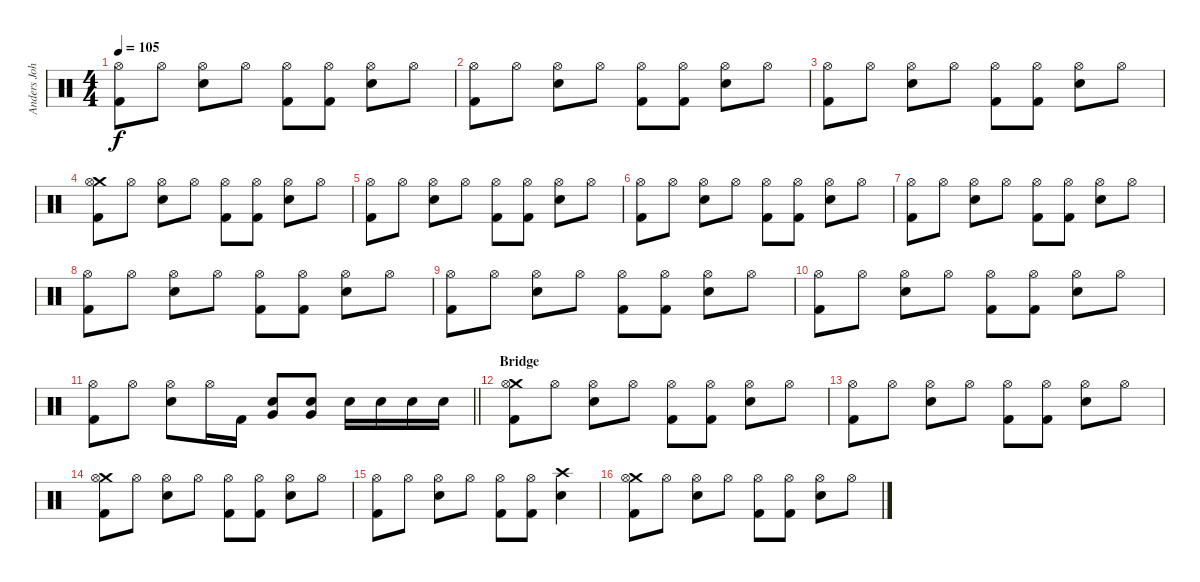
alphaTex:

\track ("Anders Johansson" "Anders Joh") {instrument percussion}
\staff {score}
\articulation defaults
\ts (4 4)
\tempo 105
\clef neutral
\ks c
("Hi-Hat (open)" "Kick (hit) 2").8{dy f} "Hi-Hat (open)".8 ("Hi-Hat (open)" "Snare (hit) 2").8 "Hi-Hat (open)".8 ("Hi-Hat (open)" "Kick (hit) 2").8 ("Hi-Hat (open)" "Kick (hit) 2").8 ("Hi-Hat (open)" "Snare (hit) 2").8 "Hi-Hat (open)".8 |
("Hi-Hat (open)" "Kick (hit) 2").8 "Hi-Hat (open)".8 ("Hi-Hat (open)" "Snare (hit) 2").8 "Hi-Hat (open)".8 ("Hi-Hat (open)" "Kick (hit) 2").8 ("Hi-Hat (open)" "Kick (hit) 2").8 ("Hi-Hat (open)" "Snare (hit) 2").8 "Hi-Hat (open)".8 |
("Hi-Hat (open)" "Kick (hit) 2").8 "Hi-Hat (open)".8 ("Hi-Hat (open)" "Snare (hit) 2").8 "Hi-Hat (open)".8 ("Hi-Hat (open)" "Kick (hit) 2").8 ("Hi-Hat (open)" "Kick (hit) 2").8 ("Hi-Hat (open)" "Snare (hit) 2").8 "Hi-Hat (open)".8 |
("Crash medium (hit)" "Hi-Hat (open)" "Kick (hit) 2").8 "Hi-Hat (open)".8 ("Hi-Hat (open)" "Snare (hit) 2").8 "Hi-Hat (open)".8 ("Hi-Hat (open)" "Kick (hit) 2").8 ("Hi-Hat (open)" "Kick (hit) 2").8 ("Hi-Hat (open)" "Snare (hit) 2").8 "Hi-Hat (open)".8 |
("Hi-Hat (open)" "Kick (hit) 2").8 "Hi-Hat (open)".8 ("Hi-Hat (open)" "Snare (hit) 2").8 "Hi-Hat (open)".8 ("Hi-Hat (open)" "Kick (hit) 2").8 ("Hi-Hat (open)" "Kick (hit) 2").8 ("Hi-Hat (open)" "Snare (hit) 2").8 "Hi-Hat (open)".8 |
("Hi-Hat (open)" "Kick (hit) 2").8 "Hi-Hat (open)".8 ("Hi-Hat (open)" "Snare (hit) 2").8 "Hi-Hat (open)".8 ("Hi-Hat (open)" "Kick (hit) 2").8 ("Hi-Hat (open)" "Kick (hit) 2").8 ("Hi-Hat (open)" "Snare (hit) 2").8 "Hi-Hat (open)".8 |
("Hi-Hat (open)" "Kick (hit) 2").8 "Hi-Hat (open)".8 ("Hi-Hat (open)" "Snare (hit) 2").8 "Hi-Hat (open)".8 ("Hi-Hat (open)" "Kick (hit) 2").8 ("Hi-Hat (open)" "Kick (hit) 2").8 ("Hi-Hat (open)" "Snare (hit) 2").8 "Hi-Hat (open)".8 |
("Hi-Hat (open)" "Kick (hit) 2").8 "Hi-Hat (open)".8 ("Hi-Hat (open)" "Snare (hit) 2").8 "Hi-Hat (open)".8 ("Hi-Hat (open)" "Kick (hit) 2").8 ("Hi-Hat (open)" "Kick (hit) 2").8 ("Hi-Hat (open)" "Snare (hit) 2").8 "Hi-Hat (open)".8 |
("Hi-Hat (open)" "Kick (hit) 2").8 "Hi-Hat (open)".8 ("Hi-Hat (open)" "Snare (hit) 2").8 "Hi-Hat (open)".8 ("Hi-Hat (open)" "Kick (hit) 2").8 ("Hi-Hat (open)" "Kick (hit) 2").8 ("Hi-Hat (open)" "Snare (hit) 2").8 "Hi-Hat (open)".8 |
("Hi-Hat (open)" "Kick (hit) 2").8 "Hi-Hat (open)".8 ("Hi-Hat (open)" "Snare (hit) 2").8 "Hi-Hat (open)".8 ("Hi-Hat (open)" "Kick (hit) 2").8 ("Hi-Hat (open)" "Kick (hit) 2").8 ("Hi-Hat (open)" "Snare (hit) 2").8 "Hi-Hat (open)".8 |
\barLineRight lightlight
("Hi-Hat (open)" "Kick (hit) 2").8 "Hi-Hat (open)".8 ("Hi-Hat (open)" "Snare (hit) 2").8 "Hi-Hat (open)".16 "Kick (hit) 2".16 ("Snare (hit) 2" "Very Low Tom (hit)").8 ("Snare (hit) 2" "Very Low Tom (hit)").8 "Snare (hit) 2".16 "Snare (hit) 2".16 "Snare (hit) 2".16 "Snare (hit) 2".16 |
\section ("" "Bridge")
("Crash medium (hit)" "Hi-Hat (open)" "Kick (hit) 2").8 "Hi-Hat (open)".8 ("Hi-Hat (open)" "Snare (hit) 2").8 "Hi-Hat (open)".8 ("Hi-Hat (open)" "Kick (hit) 2").8 ("Hi-Hat (open)" "Kick (hit) 2").8 ("Hi-Hat (open)" "Snare (hit) 2").8 "Hi-Hat (open)".8 |
("Hi-Hat (open)" "Kick (hit) 2").8 "Hi-Hat (open)".8 ("Hi-Hat (open)" "Snare (hit) 2").8 "Hi-Hat (open)".8 ("Hi-Hat (open)" "Kick (hit) 2").8 ("Hi-Hat (open)" "Kick (hit) 2").8 ("Hi-Hat (open)" "Snare (hit) 2").8 "Hi-Hat (open)".8 |
("Crash medium (hit)" "Hi-Hat (open)" "Kick (hit) 2").8 "Hi-Hat (open)".8 ("Hi-Hat (open)" "Snare (hit) 2").8 "Hi-Hat (open)".8 ("Hi-Hat (open)" "Kick (hit) 2").8 ("Hi-Hat (open)" "Kick (hit) 2").8 ("Hi-Hat (open)" "Snare (hit) 2").8 "Hi-Hat (open)".8 |
("Hi-Hat (open)" "Kick (hit) 2").8 "Hi-Hat (open)".8 ("Hi-Hat (open)" "Snare (hit) 2").8 "Hi-Hat (open)".8 ("Hi-Hat (open)" "Kick (hit) 2").8 ("Hi-Hat (open)" "Kick (hit) 2").8 ("Crash high (hit)" "Snare (hit) 2").4 |
("Crash medium (hit)" "Hi-Hat (open)" "Kick (hit) 2").8 "Hi-Hat (open)".8 ("Hi-Hat (open)" "Snare (hit) 2").8 "Hi-Hat (open)".8 ("Hi-Hat (open)" "Kick (hit) 2").8 ("Hi-Hat (open)" "Kick (hit) 2").8 ("Hi-Hat (open)" "Snare (hit) 2").8 "Hi-Hat (open)".8
